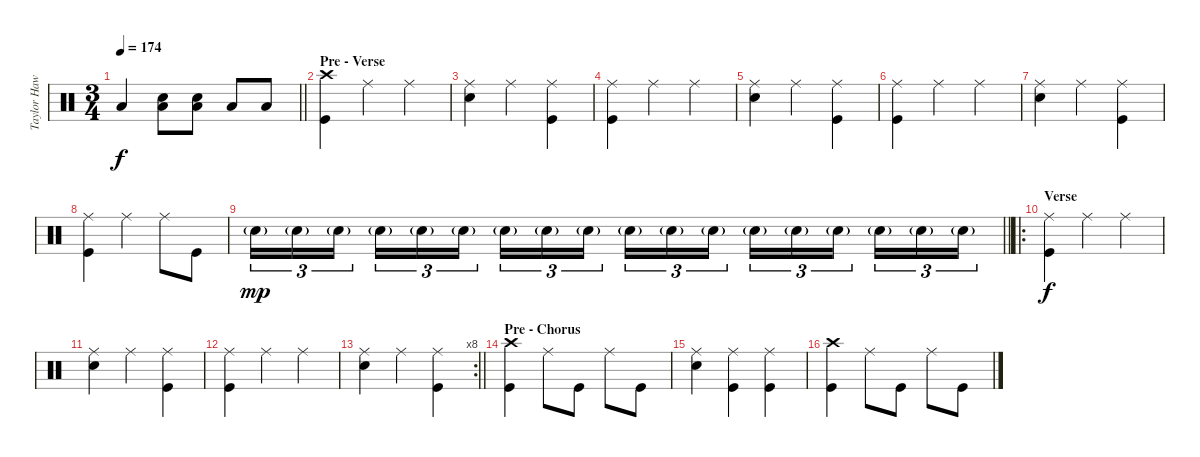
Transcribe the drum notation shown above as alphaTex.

\track ("Taylor Hawkins - Drums" "Taylor Haw") {instrument percussion}
\staff {score}
\articulation defaults
\ts (3 4)
\tempo 174
\clef neutral
\barLineRight lightlight
\ks c "Low Tom (hit)".4{dy f}
("Snare (hit) 2" "Low Tom (hit)").8 ("Snare (hit) 2" "Low Tom (hit)").8 "Low Floor Tom (hit)".8 "Low Floor Tom (hit)".8 |
\section ("" "Pre - Verse")
("Crash high (hit)" "Kick (hit)").4 "Ride (middle)".4 "Ride (middle)".4 |
("Ride (middle)" "Snare (hit) 2").4 "Ride (middle)".4 ("Ride (middle)" "Kick (hit)").4 |
("Ride (middle)" "Kick (hit)").4 "Ride (middle)".4 "Ride (middle)".4 |
("Ride (middle)" "Snare (hit) 2").4 "Ride (middle)".4 ("Ride (middle)" "Kick (hit)").4 |
("Ride (middle)" "Kick (hit)").4 "Ride (middle)".4 "Ride (middle)".4 |
("Ride (middle)" "Snare (hit) 2").4 "Ride (middle)".4 ("Ride (middle)" "Kick (hit)").4 |
("Ride (middle)" "Kick (hit)").4 "Ride (middle)".4 "Ride (middle)".8 "Kick (hit)".8 |
\barLineRight lightlight "Snare (hit) 2"{g}.16{tu (3 2) dy mp} "Snare (hit) 2"{g}.16{tu (3 2)} "Snare (hit) 2"{g}.16{tu (3 2) beam splitsecondary} "Snare (hit) 2"{g}.16{tu (3 2)} "Snare (hit) 2"{g}.16{tu (3 2)} "Snare (hit) 2"{g}.16{tu (3 2)} "Snare (hit) 2"{g}.16{tu (3 2)} "Snare (hit) 2"{g}.16{tu (3 2)} "Snare (hit) 2"{g}.16{tu (3 2) beam splitsecondary} "Snare (hit) 2"{g}.16{tu (3 2)} "Snare (hit) 2"{g}.16{tu (3 2)} "Snare (hit) 2"{g}.16{tu (3 2)} "Snare (hit) 2"{g}.16{tu (3 2)} "Snare (hit) 2"{g}.16{tu (3 2)} "Snare (hit) 2"{g}.16{tu (3 2) beam splitsecondary} "Snare (hit) 2"{g}.16{tu (3 2)} "Snare (hit) 2"{g}.16{tu (3 2)} "Snare (hit) 2"{g}.16{tu (3 2)}
|
\ro
\section ("" "Verse")
("Ride (middle)" "Kick (hit)").4{dy f} "Ride (middle)".4 "Ride (middle)".4 |
("Ride (middle)" "Snare (hit) 2").4 "Ride (middle)".4 ("Ride (middle)" "Kick (hit)").4 |
("Ride (middle)" "Kick (hit)").4 "Ride (middle)".4 "Ride (middle)".4 |
\rc 8
\barLineRight lightlight
("Ride (middle)" "Snare (hit) 2").4 "Ride (middle)".4 ("Ride (middle)" "Kick (hit)").4 |
\section ("" "Pre - Chorus")
("Crash high (hit)" "Kick (hit)").4 "Ride (middle)".8 "Kick (hit)".8 "Ride (middle)".8 "Kick (hit)".8 |
("Ride (middle)" "Snare (hit) 2").4 ("Ride (middle)" "Kick (hit)").4 ("Ride (middle)" "Kick (hit)").4 |
("Crash high (hit)" "Kick (hit)").4 "Ride (middle)".8 "Kick (hit)".8 "Ride (middle)".8 "Kick (hit)".8
